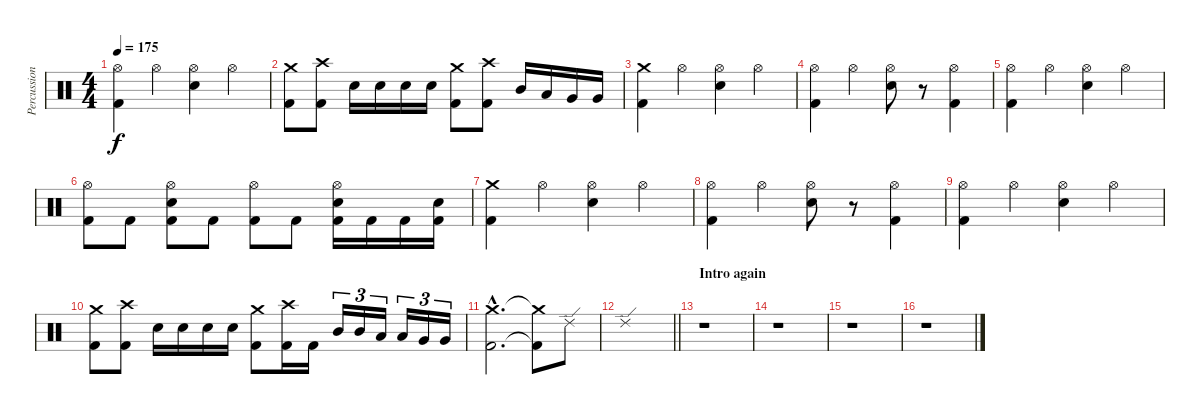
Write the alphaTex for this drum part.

\track ("Percussion" "Percussion") {instrument percussion}
\staff {score}
\articulation defaults
\ts (4 4)
\tempo 175
\clef neutral
\ks c
("Hi-Hat (open)" "Kick (hit) 2").4{dy f} "Hi-Hat (open)".4 ("Hi-Hat (open)" "Snare (hit) 2").4 "Hi-Hat (open)".4 |
("Crash medium (hit)" "Kick (hit) 2").8 ("Crash high (hit)" "Kick (hit) 2").8 "Snare (hit) 2".16 "Snare (hit) 2".16 "Snare (hit) 2".16 "Snare (hit) 2".16 ("Crash medium (hit)" "Kick (hit) 2").8 ("Crash high (hit)" "Kick (hit) 2").8 "Mid Tom (hit)".16 "Low Tom (hit)".16 "Very Low Tom (hit)".16 "Very Low Tom (hit)".16 |
("Crash medium (hit)" "Kick (hit) 2").4 "Hi-Hat (open)".4 ("Hi-Hat (open)" "Snare (hit) 2").4 "Hi-Hat (open)".4 |
("Hi-Hat (open)" "Kick (hit) 2").4 "Hi-Hat (open)".4 ("Hi-Hat (open)" "Snare (hit) 2").8 r.8 ("Hi-Hat (open)" "Kick (hit) 2").4 |
("Hi-Hat (open)" "Kick (hit) 2").4 "Hi-Hat (open)".4 ("Hi-Hat (open)" "Snare (hit) 2").4 "Hi-Hat (open)".4 |
("Hi-Hat (open)" "Kick (hit) 2").8 "Kick (hit) 2".8 ("Kick (hit) 2" "Hi-Hat (open)" "Snare (hit) 2").8 "Kick (hit) 2".8 ("Hi-Hat (open)" "Kick (hit) 2").8 "Kick (hit) 2".8 ("Kick (hit) 2" "Hi-Hat (open)" "Snare (hit) 2").16 "Kick (hit) 2".16 "Kick (hit) 2".16 ("Kick (hit) 2" "Snare (hit) 2").16 |
("Crash medium (hit)" "Kick (hit) 2").4 "Hi-Hat (open)".4 ("Hi-Hat (open)" "Snare (hit) 2").4 "Hi-Hat (open)".4 |
("Hi-Hat (open)" "Kick (hit) 2").4 "Hi-Hat (open)".4 ("Hi-Hat (open)" "Snare (hit) 2").8 r.8 ("Hi-Hat (open)" "Kick (hit) 2").4 |
("Hi-Hat (open)" "Kick (hit) 2").4 "Hi-Hat (open)".4 ("Hi-Hat (open)" "Snare (hit) 2").4 "Hi-Hat (open)".4 |
("Crash medium (hit)" "Kick (hit) 2").8 ("Crash high (hit)" "Kick (hit) 2").8 "Snare (hit) 2".16 "Snare (hit) 2".16 "Snare (hit) 2".16 "Snare (hit) 2".16 ("Crash medium (hit)" "Kick (hit) 2").8 ("Crash high (hit)" "Kick (hit) 2").16 "Kick (hit) 2".16 "Mid Tom (hit)".16{tu (3 2)} "Mid Tom (hit)".16{tu (3 2)} "Low Tom (hit)".16{tu (3 2)} "Low Tom (hit)".16{tu (3 2)} "Very Low Tom (hit)".16{tu (3 2)} "Very Low Tom (hit)".16{tu (3 2)} |
("Crash medium (hit)"{hac} "Kick (hit) 2"{hac}).2{d} ("Crash medium (hit)"{t} "Kick (hit) 2"{t}).8 "Ride (edge) 2".8 |
\barLineRight lightlight "Ride (edge) 2".1
|
\section ("" "Intro again")
r.1 |
r.1 |
r.1 |
r.1
